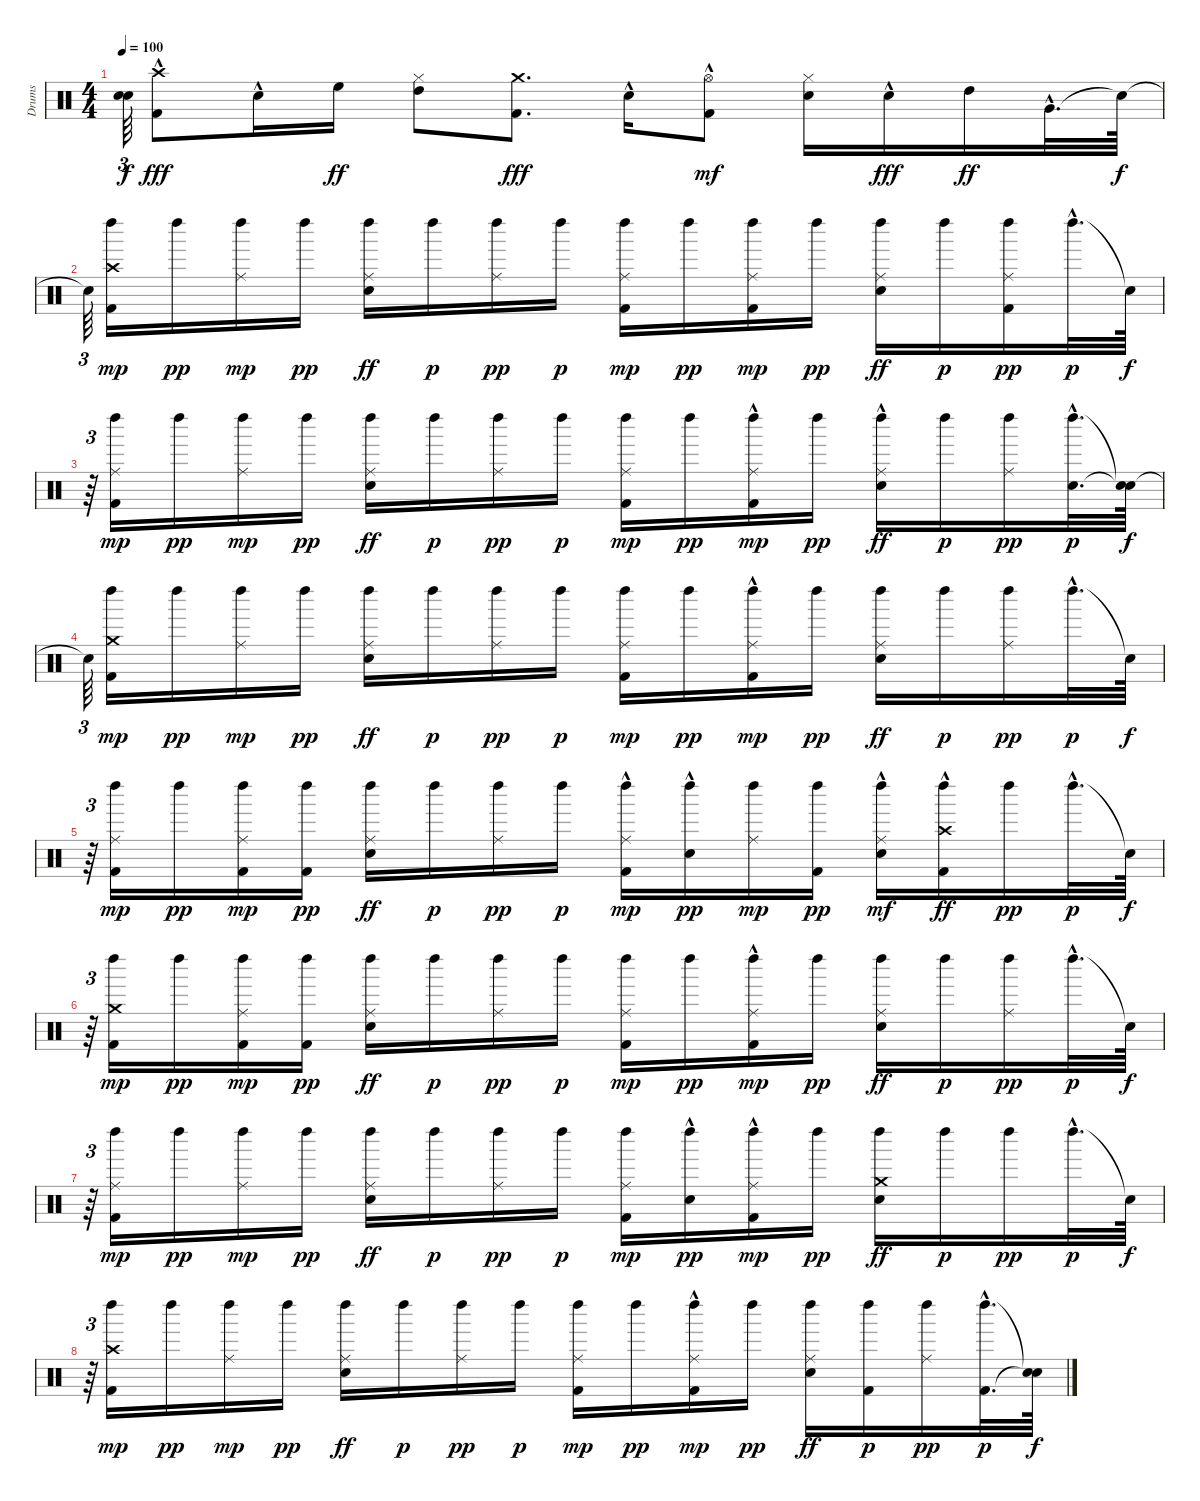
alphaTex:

\track ("Drums" "Drums") {instrument percussion}
\staff {score}
\articulation defaults
\ts (4 4)
\tempo 100
\clef neutral
\ks c
("Snare (hit)"{t} "Snare (hit)"{t}).64{tu (3 2) dy f} ("Crash high (hit)" "Kick (hit) 2"{hac}).8{dy fff} "Snare (hit) 2"{hac}.16 "High Floor Tom (hit)".16{dy ff} ("Hi-Hat (closed)" "High Tom (hit)").8 ("Crash medium (hit)" "Kick (hit) 2").8{d dy fff} "Snare (hit) 2"{hac}.16 ("Kick (hit) 2"{hac} "Hi-Hat (open)").8{dy mf} ("Snare (hit) 2" "Hi-Hat (closed)").16 "Snare (hit) 2"{hac}.16{dy fff} "High Tom (hit)".16{dy ff} "Very Low Tom (hit)"{hac}.32{d} "Snare (hit)"{t}.64{dy f} |
"Snare (hit)"{t}.64{tu (3 2)} ("Crash high (hit)" "Kick (hit) 2" "Left Maraca (hit)").16{dy mp} "Left Maraca (hit)".16{dy pp} ("Ride (middle)" "Left Maraca (hit)").16{dy mp} "Left Maraca (hit)".16{dy pp} ("Ride (middle)" "Snare (hit) 2" "Left Maraca (hit)").16{dy ff} "Left Maraca (hit)".16{dy p} ("Ride (middle)" "Left Maraca (hit)").16{dy pp} "Left Maraca (hit)".16{dy p} ("Ride (middle)" "Kick (hit) 2" "Left Maraca (hit)").16{dy mp} "Left Maraca (hit)".16{dy pp} ("Ride (middle)" "Kick (hit) 2" "Left Maraca (hit)").16{dy mp} "Left Maraca (hit)".16{dy pp} ("Ride (middle)" "Snare (hit) 2" "Left Maraca (hit)").16{dy ff} "Left Maraca (hit)".16{dy p} ("Ride (middle)" "Kick (hit) 2" "Left Maraca (hit)").16{dy pp} "Left Maraca (hit)"{hac}.32{d dy p} "Snare (hit)"{t}.64{dy f} |
r.64{tu (3 2)} ("Ride (middle)" "Kick (hit) 2" "Left Maraca (hit)").16{dy mp} "Left Maraca (hit)".16{dy pp} ("Ride (middle)" "Left Maraca (hit)").16{dy mp} "Left Maraca (hit)".16{dy pp} ("Ride (middle)" "Snare (hit) 2" "Left Maraca (hit)").16{dy ff} "Left Maraca (hit)".16{dy p} ("Ride (middle)" "Left Maraca (hit)").16{dy pp} "Left Maraca (hit)".16{dy p} ("Ride (middle)" "Kick (hit) 2" "Left Maraca (hit)").16{dy mp} "Left Maraca (hit)".16{dy pp} ("Ride (middle)" "Kick (hit) 2"{hac} "Left Maraca (hit)").16{dy mp} "Left Maraca (hit)".16{dy pp} ("Ride (middle)" "Snare (hit) 2"{hac} "Left Maraca (hit)").16{dy ff} "Left Maraca (hit)".16{dy p} ("Ride (middle)" "Left Maraca (hit)").16{dy pp} ("Snare (hit) 2"{hac} "Left Maraca (hit)"{hac}).32{d dy p} ("Snare (hit)"{t} "Snare (hit)"{t}).64{dy f} |
"Snare (hit)"{t}.64{tu (3 2)} ("Crash medium (hit)" "Kick (hit) 2" "Left Maraca (hit)").16{dy mp} "Left Maraca (hit)".16{dy pp} ("Ride (middle)" "Left Maraca (hit)").16{dy mp} "Left Maraca (hit)".16{dy pp} ("Ride (middle)" "Snare (hit) 2" "Left Maraca (hit)").16{dy ff} "Left Maraca (hit)".16{dy p} ("Ride (middle)" "Left Maraca (hit)").16{dy pp} "Left Maraca (hit)".16{dy p} ("Ride (middle)" "Kick (hit) 2" "Left Maraca (hit)").16{dy mp} "Left Maraca (hit)".16{dy pp} ("Ride (middle)" "Kick (hit) 2"{hac} "Left Maraca (hit)").16{dy mp} "Left Maraca (hit)".16{dy pp} ("Ride (middle)" "Snare (hit) 2" "Left Maraca (hit)").16{dy ff} "Left Maraca (hit)".16{dy p} ("Ride (middle)" "Left Maraca (hit)").16{dy pp} "Left Maraca (hit)"{hac}.32{d dy p} "Snare (hit)"{t}.64{dy f} |
r.64{tu (3 2)} ("Ride (middle)" "Kick (hit) 2" "Left Maraca (hit)").16{dy mp} "Left Maraca (hit)".16{dy pp} ("Ride (middle)" "Kick (hit) 2" "Left Maraca (hit)").16{dy mp} ("Kick (hit) 2" "Left Maraca (hit)").16{dy pp} ("Ride (middle)" "Snare (hit) 2" "Left Maraca (hit)").16{dy ff} "Left Maraca (hit)".16{dy p} ("Ride (middle)" "Left Maraca (hit)").16{dy pp} "Left Maraca (hit)".16{dy p} ("Ride (middle)" "Kick (hit) 2"{hac} "Left Maraca (hit)").16{dy mp} ("Snare (hit) 2"{hac} "Left Maraca (hit)").16{dy pp} ("Ride (middle)" "Left Maraca (hit)").16{dy mp} ("Kick (hit) 2" "Left Maraca (hit)").16{dy pp} ("Ride (middle)"{hac} "Snare (hit) 2" "Left Maraca (hit)").16{dy mf} ("Crash high (hit)" "Kick (hit) 2"{hac} "Left Maraca (hit)").16{dy ff} "Left Maraca (hit)".16{dy pp} "Left Maraca (hit)"{hac}.32{d dy p} "Snare (hit)"{t}.64{dy f} |
r.64{tu (3 2)} ("Crash medium (hit)" "Kick (hit) 2" "Left Maraca (hit)").16{dy mp} "Left Maraca (hit)".16{dy pp} ("Ride (middle)" "Kick (hit) 2" "Left Maraca (hit)").16{dy mp} ("Kick (hit) 2" "Left Maraca (hit)").16{dy pp} ("Ride (middle)" "Snare (hit) 2" "Left Maraca (hit)").16{dy ff} "Left Maraca (hit)".16{dy p} ("Ride (middle)" "Left Maraca (hit)").16{dy pp} "Left Maraca (hit)".16{dy p} ("Ride (middle)" "Kick (hit) 2" "Left Maraca (hit)").16{dy mp} "Left Maraca (hit)".16{dy pp} ("Ride (middle)" "Kick (hit) 2"{hac} "Left Maraca (hit)").16{dy mp} "Left Maraca (hit)".16{dy pp} ("Ride (middle)" "Snare (hit) 2" "Left Maraca (hit)").16{dy ff} "Left Maraca (hit)".16{dy p} ("Ride (middle)" "Left Maraca (hit)").16{dy pp} "Left Maraca (hit)"{hac}.32{d dy p} "Snare (hit)"{t}.64{dy f} |
r.64{tu (3 2)} ("Ride (middle)" "Kick (hit) 2" "Left Maraca (hit)").16{dy mp} "Left Maraca (hit)".16{dy pp} ("Ride (middle)" "Left Maraca (hit)").16{dy mp} "Left Maraca (hit)".16{dy pp} ("Ride (middle)" "Snare (hit) 2" "Left Maraca (hit)").16{dy ff} "Left Maraca (hit)".16{dy p} ("Ride (middle)" "Left Maraca (hit)").16{dy pp} "Left Maraca (hit)".16{dy p} ("Ride (middle)" "Kick (hit) 2" "Left Maraca (hit)").16{dy mp} ("Snare (hit) 2"{hac} "Left Maraca (hit)").16{dy pp} ("Ride (middle)" "Kick (hit) 2"{hac} "Left Maraca (hit)").16{dy mp} "Left Maraca (hit)".16{dy pp} ("Crash medium (hit)" "Snare (hit) 2" "Left Maraca (hit)").16{dy ff} "Left Maraca (hit)".16{dy p} "Left Maraca (hit)".16{dy pp} "Left Maraca (hit)"{hac}.32{d dy p} "Snare (hit)"{t}.64{dy f} |
r.64{tu (3 2)} ("Crash high (hit)" "Kick (hit) 2" "Left Maraca (hit)").16{dy mp} "Left Maraca (hit)".16{dy pp} ("Ride (middle)" "Left Maraca (hit)").16{dy mp} "Left Maraca (hit)".16{dy pp} ("Ride (middle)" "Snare (hit) 2" "Left Maraca (hit)").16{dy ff} "Left Maraca (hit)".16{dy p} ("Ride (middle)" "Left Maraca (hit)").16{dy pp} "Left Maraca (hit)".16{dy p} ("Ride (middle)" "Kick (hit) 2" "Left Maraca (hit)").16{dy mp} "Left Maraca (hit)".16{dy pp} ("Ride (middle)" "Kick (hit) 2"{hac} "Left Maraca (hit)").16{dy mp} "Left Maraca (hit)".16{dy pp} ("Ride (middle)" "Snare (hit) 2" "Left Maraca (hit)").16{dy ff} ("Kick (hit) 2" "Left Maraca (hit)").16{dy p} ("Ride (middle)" "Left Maraca (hit)").16{dy pp} ("Kick (hit) 2"{hac} "Left Maraca (hit)"{hac}).32{d dy p} ("Snare (hit)"{t} "Snare (hit)"{t}).64{dy f}
